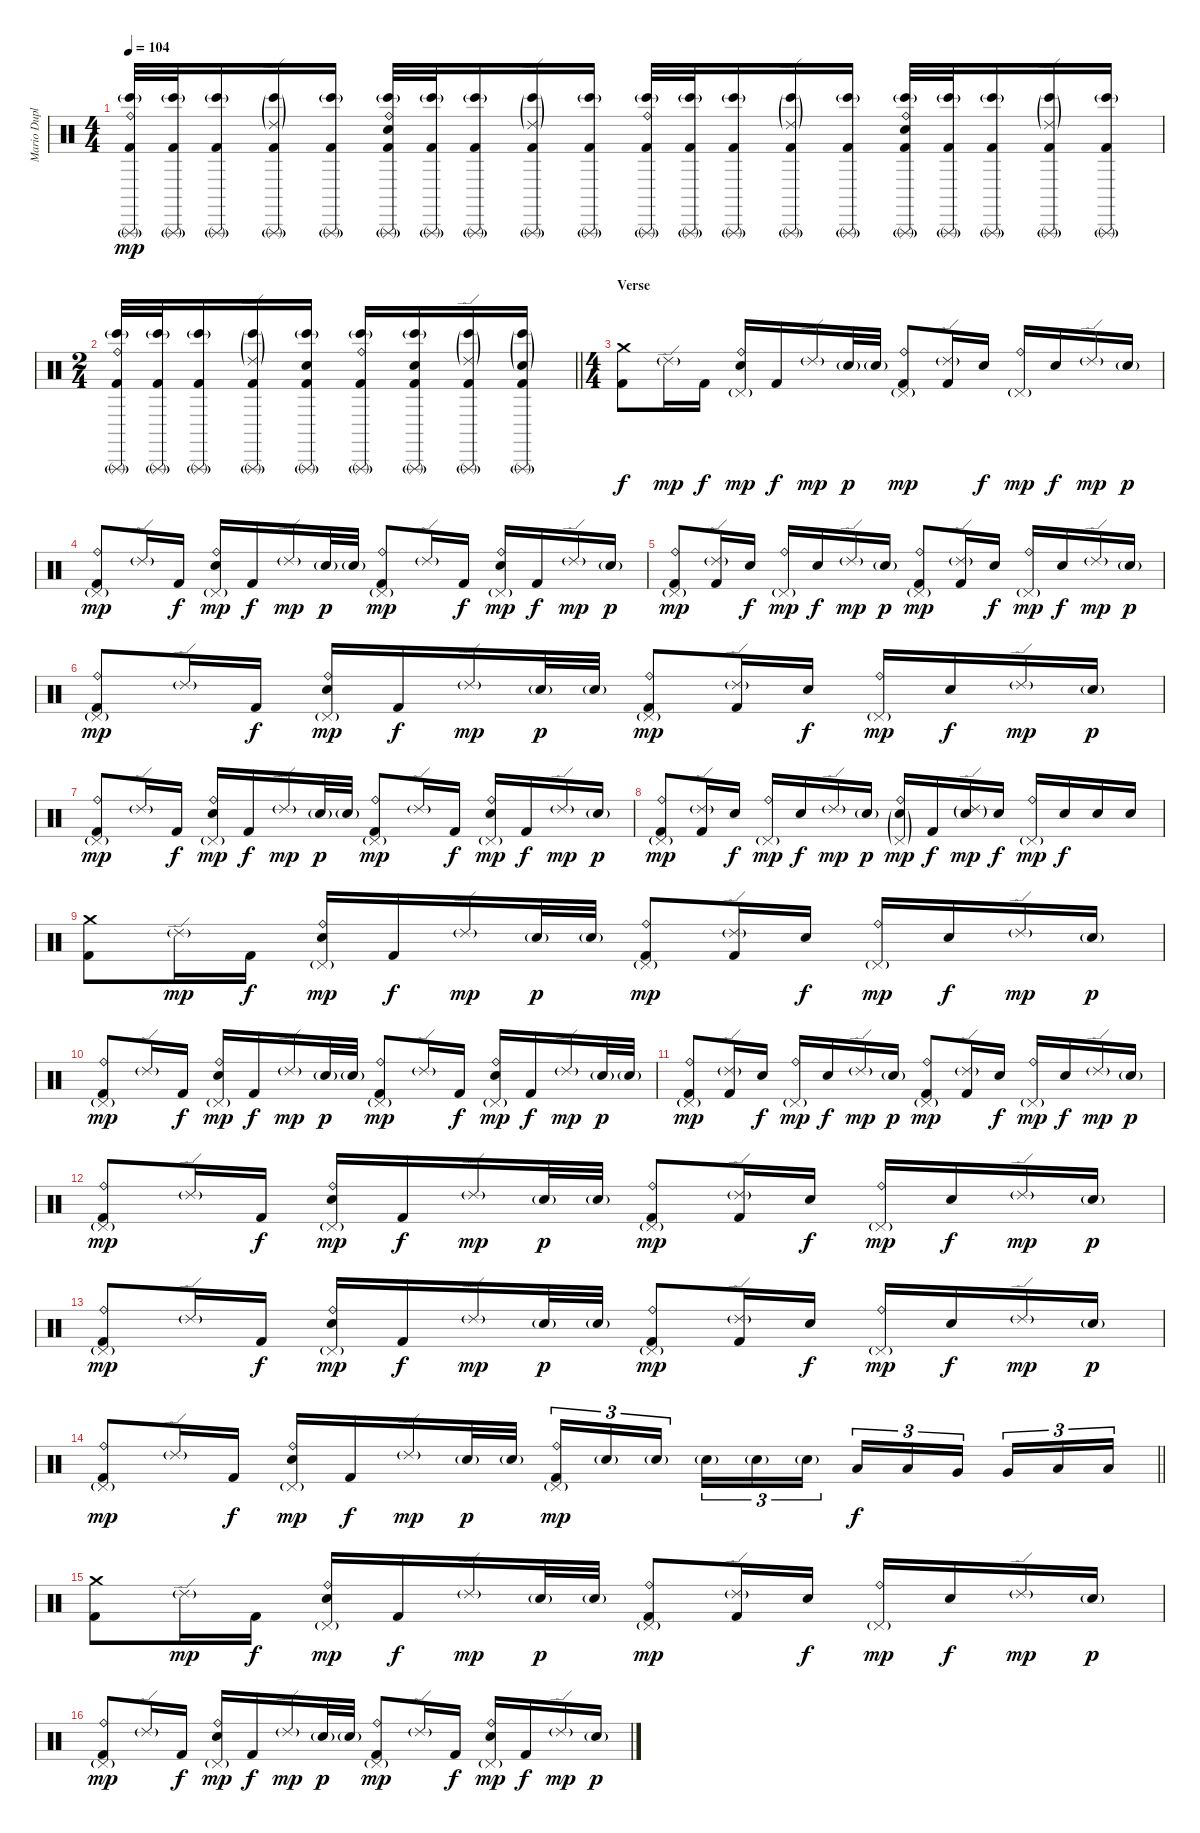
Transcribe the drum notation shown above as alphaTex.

\track ("Mario Duplantier" "Mario Dupl") {instrument percussion}
\staff {score}
\articulation defaults
\ts (4 4)
\tempo 104
\clef neutral
\ks c
("Triangle (rnute)"{g} "Bongo High (hit)"{g} "Ride (bell)" "Kick (hit) 2").32{dy mp} ("Triangle (rnute)"{g} "Bongo High (hit)"{g} "Kick (hit) 2").32 ("Triangle (rnute)"{g} "Bongo High (hit)"{g} "Kick (hit) 2").16 ("Triangle (rnute)"{g} "Bongo High (hit)"{g} "Ride (edge) 2"{g} "Kick (hit) 2").16 ("Triangle (rnute)"{g} "Bongo High (hit)"{g} "Kick (hit) 2").16 ("Triangle (rnute)"{g} "Bongo High (hit)"{g} "Ride (bell)" "Electric Snare (hit)" "Kick (hit) 2").32 ("Triangle (rnute)"{g} "Bongo High (hit)"{g} "Kick (hit) 2").32 ("Triangle (rnute)"{g} "Bongo High (hit)"{g} "Kick (hit) 2").16 ("Triangle (rnute)"{g} "Bongo High (hit)"{g} "Ride (edge) 2"{g} "Kick (hit) 2").16 ("Triangle (rnute)"{g} "Bongo High (hit)"{g} "Kick (hit) 2").16 ("Triangle (rnute)"{g} "Bongo High (hit)"{g} "Ride (bell)" "Kick (hit) 2").32 ("Triangle (rnute)"{g} "Bongo High (hit)"{g} "Kick (hit) 2").32 ("Triangle (rnute)"{g} "Bongo High (hit)"{g} "Kick (hit) 2").16 ("Triangle (rnute)"{g} "Bongo High (hit)"{g} "Ride (edge) 2"{g} "Kick (hit) 2").16 ("Triangle (rnute)"{g} "Bongo High (hit)"{g} "Kick (hit) 2").16 ("Triangle (rnute)"{g} "Bongo High (hit)"{g} "Ride (bell)" "Electric Snare (hit)" "Kick (hit) 2").32 ("Triangle (rnute)"{g} "Bongo High (hit)"{g} "Kick (hit) 2").32 ("Triangle (rnute)"{g} "Bongo High (hit)"{g} "Kick (hit) 2").16 ("Triangle (rnute)"{g} "Bongo High (hit)"{g} "Ride (edge) 2"{g} "Kick (hit) 2").16 ("Triangle (rnute)"{g} "Bongo High (hit)"{g} "Kick (hit) 2").16 |
\ts (2 4)
\barLineRight lightlight
("Triangle (rnute)"{g} "Bongo High (hit)"{g} "Ride (bell)" "Kick (hit) 2").32 ("Triangle (rnute)"{g} "Bongo High (hit)"{g} "Kick (hit) 2").32 ("Triangle (rnute)"{g} "Bongo High (hit)"{g} "Kick (hit) 2").16 ("Triangle (rnute)"{g} "Bongo High (hit)"{g} "Ride (edge) 2"{g} "Kick (hit) 2").16 ("Triangle (rnute)"{g} "Bongo High (hit)"{g} "Electric Snare (hit)" "Kick (hit) 2").16 ("Triangle (rnute)"{g} "Bongo High (hit)"{g} "Ride (bell)" "Kick (hit) 2").16 ("Triangle (rnute)"{g} "Bongo High (hit)"{g} "Electric Snare (hit)" "Kick (hit) 2").16 ("Triangle (rnute)"{g} "Bongo High (hit)"{g} "Ride (edge) 2"{g} "Kick (hit) 2").16 ("Triangle (rnute)"{g} "Bongo High (hit)"{g} "Electric Snare (hit)"{g} "Kick (hit) 2").16 |
\ts (4 4)
\section ("" "Verse")
("Crash medium (hit)" "Kick (hit) 2").8{dy f} "Ride (edge) 2"{g}.16{dy mp} "Kick (hit) 2".16{dy f} ("Ride (bell)" "Pedal Hi-Hat (hit)"{g} "Electric Snare (hit)").16{dy mp} "Kick (hit) 2".16{dy f} "Ride (edge) 2"{g}.16{dy mp} "Electric Snare (hit)"{g}.32{dy p} "Electric Snare (hit)"{g}.32 ("Ride (bell)" "Pedal Hi-Hat (hit)"{g} "Kick (hit) 2").8{dy mp} ("Ride (edge) 2"{g} "Kick (hit) 2").16 "Electric Snare (hit)".16{dy f} ("Ride (bell)" "Pedal Hi-Hat (hit)"{g}).16{dy mp} "Electric Snare (hit)".16{dy f} "Ride (edge) 2"{g}.16{dy mp} "Electric Snare (hit)"{g}.16{dy p} |
("Ride (bell)" "Pedal Hi-Hat (hit)"{g} "Kick (hit) 2").8{dy mp} "Ride (edge) 2"{g}.16 "Kick (hit) 2".16{dy f} ("Ride (bell)" "Pedal Hi-Hat (hit)"{g} "Electric Snare (hit)").16{dy mp} "Kick (hit) 2".16{dy f} "Ride (edge) 2"{g}.16{dy mp} "Electric Snare (hit)"{g}.32{dy p} "Electric Snare (hit)"{g}.32 ("Ride (bell)" "Pedal Hi-Hat (hit)"{g} "Kick (hit) 2").8{dy mp} "Ride (edge) 2"{g}.16 "Kick (hit) 2".16{dy f} ("Ride (bell)" "Pedal Hi-Hat (hit)"{g} "Electric Snare (hit)").16{dy mp} "Kick (hit) 2".16{dy f} "Ride (edge) 2"{g}.16{dy mp} "Electric Snare (hit)"{g}.16{dy p} |
("Ride (bell)" "Pedal Hi-Hat (hit)"{g} "Kick (hit) 2").8{dy mp} ("Ride (edge) 2"{g} "Kick (hit) 2").16 "Electric Snare (hit)".16{dy f} ("Ride (bell)" "Pedal Hi-Hat (hit)"{g}).16{dy mp} "Electric Snare (hit)".16{dy f} "Ride (edge) 2"{g}.16{dy mp} "Electric Snare (hit)"{g}.16{dy p} ("Ride (bell)" "Pedal Hi-Hat (hit)"{g} "Kick (hit) 2").8{dy mp} ("Ride (edge) 2"{g} "Kick (hit) 2").16 "Electric Snare (hit)".16{dy f} ("Ride (bell)" "Pedal Hi-Hat (hit)"{g}).16{dy mp} "Electric Snare (hit)".16{dy f} "Ride (edge) 2"{g}.16{dy mp} "Electric Snare (hit)"{g}.16{dy p} |
("Ride (bell)" "Pedal Hi-Hat (hit)"{g} "Kick (hit) 2").8{dy mp} "Ride (edge) 2"{g}.16 "Kick (hit) 2".16{dy f} ("Ride (bell)" "Pedal Hi-Hat (hit)"{g} "Electric Snare (hit)").16{dy mp} "Kick (hit) 2".16{dy f} "Ride (edge) 2"{g}.16{dy mp} "Electric Snare (hit)"{g}.32{dy p} "Electric Snare (hit)"{g}.32 ("Ride (bell)" "Pedal Hi-Hat (hit)"{g} "Kick (hit) 2").8{dy mp} ("Ride (edge) 2"{g} "Kick (hit) 2").16 "Electric Snare (hit)".16{dy f} ("Ride (bell)" "Pedal Hi-Hat (hit)"{g}).16{dy mp} "Electric Snare (hit)".16{dy f} "Ride (edge) 2"{g}.16{dy mp} "Electric Snare (hit)"{g}.16{dy p} |
("Ride (bell)" "Pedal Hi-Hat (hit)"{g} "Kick (hit) 2").8{dy mp} "Ride (edge) 2"{g}.16 "Kick (hit) 2".16{dy f} ("Ride (bell)" "Pedal Hi-Hat (hit)"{g} "Electric Snare (hit)").16{dy mp} "Kick (hit) 2".16{dy f} "Ride (edge) 2"{g}.16{dy mp} "Electric Snare (hit)"{g}.32{dy p} "Electric Snare (hit)"{g}.32 ("Ride (bell)" "Pedal Hi-Hat (hit)"{g} "Kick (hit) 2").8{dy mp} "Ride (edge) 2"{g}.16 "Kick (hit) 2".16{dy f} ("Ride (bell)" "Pedal Hi-Hat (hit)"{g} "Electric Snare (hit)").16{dy mp} "Kick (hit) 2".16{dy f} "Ride (edge) 2"{g}.16{dy mp} "Electric Snare (hit)"{g}.16{dy p} |
("Ride (bell)" "Pedal Hi-Hat (hit)"{g} "Kick (hit) 2").8{dy mp} ("Ride (edge) 2"{g} "Kick (hit) 2").16 "Electric Snare (hit)".16{dy f} ("Ride (bell)" "Pedal Hi-Hat (hit)"{g}).16{dy mp} "Electric Snare (hit)".16{dy f} "Ride (edge) 2"{g}.16{dy mp} "Electric Snare (hit)"{g}.16{dy p} ("Ride (bell)" "Pedal Hi-Hat (hit)"{g} "Electric Snare (hit)"{g}).16{dy mp} "Kick (hit) 2".16{dy f} ("Ride (edge) 2"{g} "Electric Snare (hit)"{g}).16{dy mp} "Electric Snare (hit)".16{dy f} ("Ride (bell)" "Pedal Hi-Hat (hit)"{g}).16{dy mp} "Electric Snare (hit)".16{dy f} "Electric Snare (hit)".16 "Electric Snare (hit)".16 |
("Crash medium (hit)" "Kick (hit) 2").8 "Ride (edge) 2"{g}.16{dy mp} "Kick (hit) 2".16{dy f} ("Ride (bell)" "Pedal Hi-Hat (hit)"{g} "Electric Snare (hit)").16{dy mp} "Kick (hit) 2".16{dy f} "Ride (edge) 2"{g}.16{dy mp} "Electric Snare (hit)"{g}.32{dy p} "Electric Snare (hit)"{g}.32 ("Ride (bell)" "Pedal Hi-Hat (hit)"{g} "Kick (hit) 2").8{dy mp} ("Ride (edge) 2"{g} "Kick (hit) 2").16 "Electric Snare (hit)".16{dy f} ("Ride (bell)" "Pedal Hi-Hat (hit)"{g}).16{dy mp} "Electric Snare (hit)".16{dy f} "Ride (edge) 2"{g}.16{dy mp} "Electric Snare (hit)"{g}.16{dy p} |
("Ride (bell)" "Pedal Hi-Hat (hit)"{g} "Kick (hit) 2").8{dy mp} "Ride (edge) 2"{g}.16 "Kick (hit) 2".16{dy f} ("Ride (bell)" "Pedal Hi-Hat (hit)"{g} "Electric Snare (hit)").16{dy mp} "Kick (hit) 2".16{dy f} "Ride (edge) 2"{g}.16{dy mp} "Electric Snare (hit)"{g}.32{dy p} "Electric Snare (hit)"{g}.32 ("Ride (bell)" "Pedal Hi-Hat (hit)"{g} "Kick (hit) 2").8{dy mp} "Ride (edge) 2"{g}.16 "Kick (hit) 2".16{dy f} ("Ride (bell)" "Pedal Hi-Hat (hit)"{g} "Electric Snare (hit)").16{dy mp} "Kick (hit) 2".16{dy f} "Ride (edge) 2"{g}.16{dy mp} "Electric Snare (hit)"{g}.32{dy p} "Electric Snare (hit)"{g}.32 |
("Ride (bell)" "Pedal Hi-Hat (hit)"{g} "Kick (hit) 2").8{dy mp} ("Ride (edge) 2"{g} "Kick (hit) 2").16 "Electric Snare (hit)".16{dy f} ("Ride (bell)" "Pedal Hi-Hat (hit)"{g}).16{dy mp} "Electric Snare (hit)".16{dy f} "Ride (edge) 2"{g}.16{dy mp} "Electric Snare (hit)"{g}.16{dy p} ("Ride (bell)" "Pedal Hi-Hat (hit)"{g} "Kick (hit) 2").8{dy mp} ("Ride (edge) 2"{g} "Kick (hit) 2").16 "Electric Snare (hit)".16{dy f} ("Ride (bell)" "Pedal Hi-Hat (hit)"{g}).16{dy mp} "Electric Snare (hit)".16{dy f} "Ride (edge) 2"{g}.16{dy mp} "Electric Snare (hit)"{g}.16{dy p} |
("Ride (bell)" "Pedal Hi-Hat (hit)"{g} "Kick (hit) 2").8{dy mp} "Ride (edge) 2"{g}.16 "Kick (hit) 2".16{dy f} ("Ride (bell)" "Pedal Hi-Hat (hit)"{g} "Electric Snare (hit)").16{dy mp} "Kick (hit) 2".16{dy f} "Ride (edge) 2"{g}.16{dy mp} "Electric Snare (hit)"{g}.32{dy p} "Electric Snare (hit)"{g}.32 ("Ride (bell)" "Pedal Hi-Hat (hit)"{g} "Kick (hit) 2").8{dy mp} ("Ride (edge) 2"{g} "Kick (hit) 2").16 "Electric Snare (hit)".16{dy f} ("Ride (bell)" "Pedal Hi-Hat (hit)"{g}).16{dy mp} "Electric Snare (hit)".16{dy f} "Ride (edge) 2"{g}.16{dy mp} "Electric Snare (hit)"{g}.16{dy p} |
("Ride (bell)" "Pedal Hi-Hat (hit)"{g} "Kick (hit) 2").8{dy mp} "Ride (edge) 2"{g}.16 "Kick (hit) 2".16{dy f} ("Ride (bell)" "Pedal Hi-Hat (hit)"{g} "Electric Snare (hit)").16{dy mp} "Kick (hit) 2".16{dy f} "Ride (edge) 2"{g}.16{dy mp} "Electric Snare (hit)"{g}.32{dy p} "Electric Snare (hit)"{g}.32 ("Ride (bell)" "Pedal Hi-Hat (hit)"{g} "Kick (hit) 2").8{dy mp} ("Ride (edge) 2"{g} "Kick (hit) 2").16 "Electric Snare (hit)".16{dy f} ("Ride (bell)" "Pedal Hi-Hat (hit)"{g}).16{dy mp} "Electric Snare (hit)".16{dy f} "Ride (edge) 2"{g}.16{dy mp} "Electric Snare (hit)"{g}.16{dy p} |
\barLineRight lightlight
("Ride (bell)" "Pedal Hi-Hat (hit)"{g} "Kick (hit) 2").8{dy mp} "Ride (edge) 2"{g}.16 "Kick (hit) 2".16{dy f} ("Ride (bell)" "Pedal Hi-Hat (hit)"{g} "Electric Snare (hit)").16{dy mp} "Kick (hit) 2".16{dy f} "Ride (edge) 2"{g}.16{dy mp} "Electric Snare (hit)"{g}.32{dy p} "Electric Snare (hit)"{g}.32 ("Ride (bell)" "Pedal Hi-Hat (hit)"{g} "Kick (hit) 2").16{tu (3 2) dy mp} "Electric Snare (hit)"{g}.16{tu (3 2)} "Electric Snare (hit)"{g}.16{tu (3 2) beam splitsecondary} "Electric Snare (hit)"{g}.16{tu (3 2)} "Electric Snare (hit)"{g}.16{tu (3 2)} "Electric Snare (hit)"{g}.16{tu (3 2)} "Low Tom (hit)".16{tu (3 2) dy f} "Low Tom (hit)".16{tu (3 2)} "Very Low Tom (hit)".16{tu (3 2) beam splitsecondary} "Very Low Tom (hit)".16{tu (3 2)} "Low Floor Tom (hit)".16{tu (3 2)} "Low Floor Tom (hit)".16{tu (3 2)} |
("Crash medium (hit)" "Kick (hit) 2").8 "Ride (edge) 2"{g}.16{dy mp} "Kick (hit) 2".16{dy f} ("Ride (bell)" "Pedal Hi-Hat (hit)"{g} "Electric Snare (hit)").16{dy mp} "Kick (hit) 2".16{dy f} "Ride (edge) 2"{g}.16{dy mp} "Electric Snare (hit)"{g}.32{dy p} "Electric Snare (hit)"{g}.32 ("Ride (bell)" "Pedal Hi-Hat (hit)"{g} "Kick (hit) 2").8{dy mp} ("Ride (edge) 2"{g} "Kick (hit) 2").16 "Electric Snare (hit)".16{dy f} ("Ride (bell)" "Pedal Hi-Hat (hit)"{g}).16{dy mp} "Electric Snare (hit)".16{dy f} "Ride (edge) 2"{g}.16{dy mp} "Electric Snare (hit)"{g}.16{dy p} |
("Ride (bell)" "Pedal Hi-Hat (hit)"{g} "Kick (hit) 2").8{dy mp} "Ride (edge) 2"{g}.16 "Kick (hit) 2".16{dy f} ("Ride (bell)" "Pedal Hi-Hat (hit)"{g} "Electric Snare (hit)").16{dy mp} "Kick (hit) 2".16{dy f} "Ride (edge) 2"{g}.16{dy mp} "Electric Snare (hit)"{g}.32{dy p} "Electric Snare (hit)"{g}.32 ("Ride (bell)" "Pedal Hi-Hat (hit)"{g} "Kick (hit) 2").8{dy mp} "Ride (edge) 2"{g}.16 "Kick (hit) 2".16{dy f} ("Ride (bell)" "Pedal Hi-Hat (hit)"{g} "Electric Snare (hit)").16{dy mp} "Kick (hit) 2".16{dy f} "Ride (edge) 2"{g}.16{dy mp} "Electric Snare (hit)"{g}.16{dy p}
